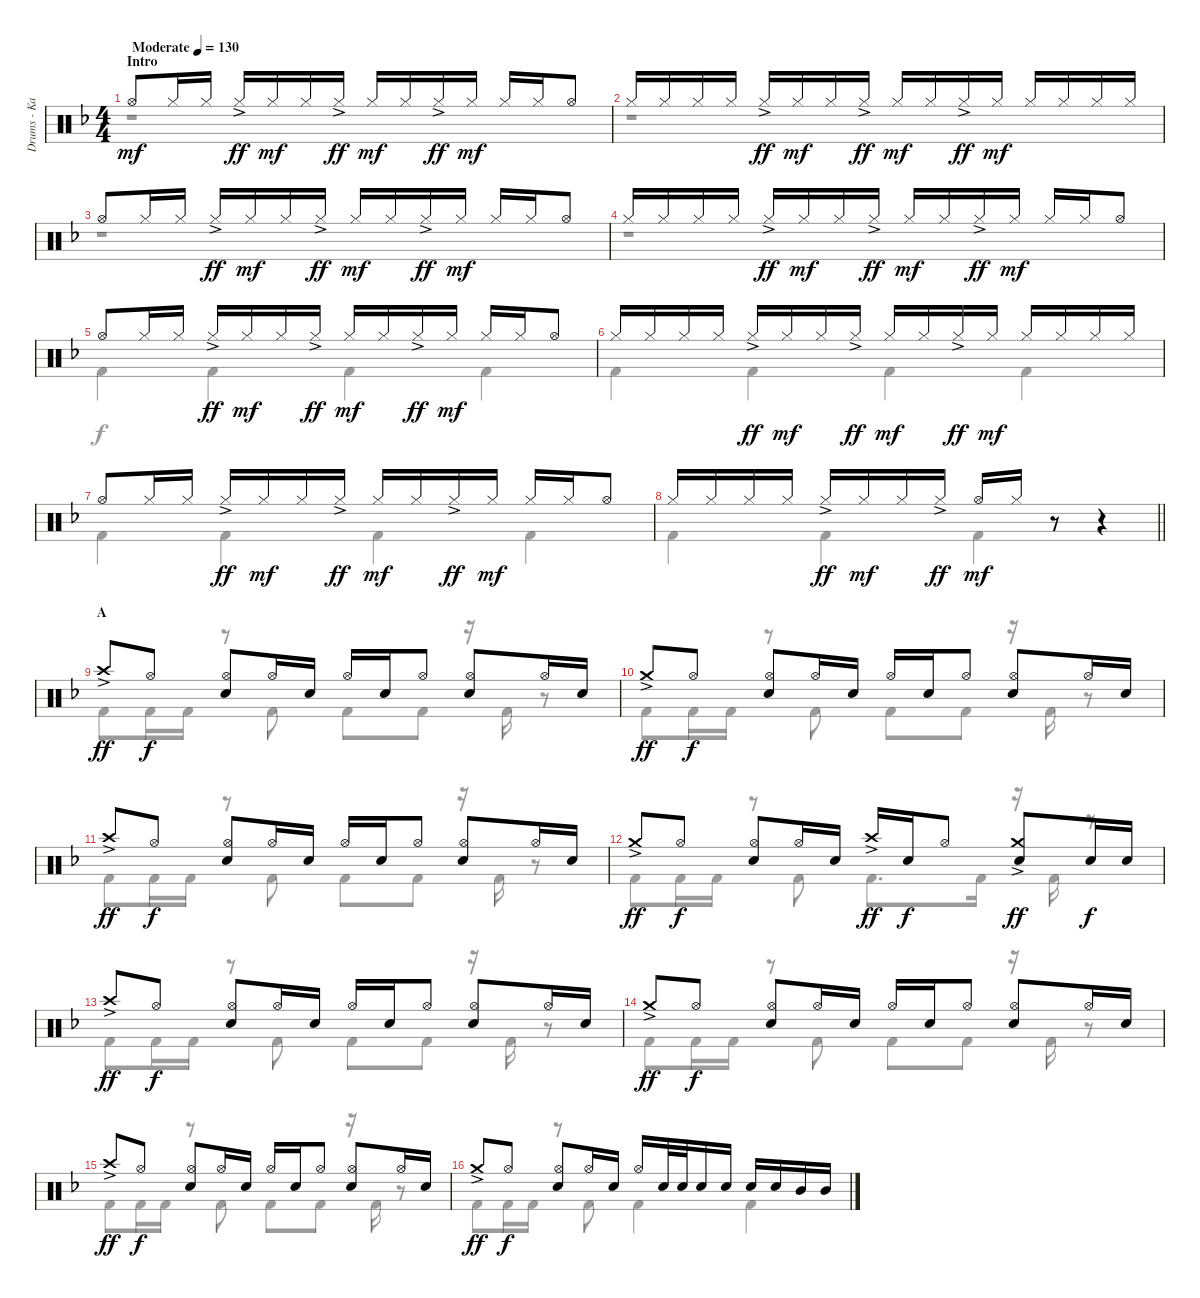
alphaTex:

\track ("Drums - Kai" "Drums - Ka") {instrument percussion}
\staff {score}
\articulation defaults
\voice
\ts (4 4)
\section ("" "Intro")
\tempo (130 "Moderate")
\clef neutral
\ks f "Hi-Hat (open)".8{dy mf} "Hi-Hat (closed)".16 "Hi-Hat (closed)".16 "Hi-Hat (closed)"{ac}.16{dy ff} "Hi-Hat (closed)".16{dy mf} "Hi-Hat (closed)".16 "Hi-Hat (closed)"{ac}.16{dy ff} "Hi-Hat (closed)".16{dy mf} "Hi-Hat (closed)".16 "Hi-Hat (closed)"{ac}.16{dy ff} "Hi-Hat (closed)".16{dy mf} "Hi-Hat (closed)".16 "Hi-Hat (closed)".16 "Hi-Hat (open)".8
|
"Hi-Hat (closed)".16 "Hi-Hat (closed)".16 "Hi-Hat (closed)".16 "Hi-Hat (closed)".16 "Hi-Hat (closed)"{ac}.16{dy ff} "Hi-Hat (closed)".16{dy mf} "Hi-Hat (closed)".16 "Hi-Hat (closed)"{ac}.16{dy ff} "Hi-Hat (closed)".16{dy mf} "Hi-Hat (closed)".16 "Hi-Hat (closed)"{ac}.16{dy ff} "Hi-Hat (closed)".16{dy mf} "Hi-Hat (closed)".16 "Hi-Hat (closed)".16 "Hi-Hat (closed)".16 "Hi-Hat (closed)".16 |
"Hi-Hat (open)".8 "Hi-Hat (closed)".16 "Hi-Hat (closed)".16 "Hi-Hat (closed)"{ac}.16{dy ff} "Hi-Hat (closed)".16{dy mf} "Hi-Hat (closed)".16 "Hi-Hat (closed)"{ac}.16{dy ff} "Hi-Hat (closed)".16{dy mf} "Hi-Hat (closed)".16 "Hi-Hat (closed)"{ac}.16{dy ff} "Hi-Hat (closed)".16{dy mf} "Hi-Hat (closed)".16 "Hi-Hat (closed)".16 "Hi-Hat (open)".8 |
"Hi-Hat (closed)".16 "Hi-Hat (closed)".16 "Hi-Hat (closed)".16 "Hi-Hat (closed)".16 "Hi-Hat (closed)"{ac}.16{dy ff} "Hi-Hat (closed)".16{dy mf} "Hi-Hat (closed)".16 "Hi-Hat (closed)"{ac}.16{dy ff} "Hi-Hat (closed)".16{dy mf} "Hi-Hat (closed)".16 "Hi-Hat (closed)"{ac}.16{dy ff} "Hi-Hat (closed)".16{dy mf} "Hi-Hat (closed)".16 "Hi-Hat (closed)".16 "Hi-Hat (open)".8 |
"Hi-Hat (open)".8 "Hi-Hat (closed)".16 "Hi-Hat (closed)".16 "Hi-Hat (closed)"{ac}.16{dy ff} "Hi-Hat (closed)".16{dy mf} "Hi-Hat (closed)".16 "Hi-Hat (closed)"{ac}.16{dy ff} "Hi-Hat (closed)".16{dy mf} "Hi-Hat (closed)".16 "Hi-Hat (closed)"{ac}.16{dy ff} "Hi-Hat (closed)".16{dy mf} "Hi-Hat (closed)".16 "Hi-Hat (closed)".16 "Hi-Hat (open)".8 |
"Hi-Hat (closed)".16 "Hi-Hat (closed)".16 "Hi-Hat (closed)".16 "Hi-Hat (closed)".16 "Hi-Hat (closed)"{ac}.16{dy ff} "Hi-Hat (closed)".16{dy mf} "Hi-Hat (closed)".16 "Hi-Hat (closed)"{ac}.16{dy ff} "Hi-Hat (closed)".16{dy mf} "Hi-Hat (closed)".16 "Hi-Hat (closed)"{ac}.16{dy ff} "Hi-Hat (closed)".16{dy mf} "Hi-Hat (closed)".16 "Hi-Hat (closed)".16 "Hi-Hat (closed)".16 "Hi-Hat (closed)".16 |
"Hi-Hat (open)".8 "Hi-Hat (closed)".16 "Hi-Hat (closed)".16 "Hi-Hat (closed)"{ac}.16{dy ff} "Hi-Hat (closed)".16{dy mf} "Hi-Hat (closed)".16 "Hi-Hat (closed)"{ac}.16{dy ff} "Hi-Hat (closed)".16{dy mf} "Hi-Hat (closed)".16 "Hi-Hat (closed)"{ac}.16{dy ff} "Hi-Hat (closed)".16{dy mf} "Hi-Hat (closed)".16 "Hi-Hat (closed)".16 "Hi-Hat (open)".8 |
\barLineRight lightlight "Hi-Hat (closed)".16 "Hi-Hat (closed)".16 "Hi-Hat (closed)".16 "Hi-Hat (closed)".16 "Hi-Hat (closed)"{ac}.16{dy ff} "Hi-Hat (closed)".16{dy mf} "Hi-Hat (closed)".16 "Hi-Hat (closed)"{ac}.16{dy ff} "Hi-Hat (open)".16{dy mf} "Hi-Hat (closed)".16
r.8 r.4 |
\section ("" "A")
"Crash high (hit)"{ac}.8{dy ff} "Hi-Hat (open)".8{dy f} ("Hi-Hat (open)" "Snare (hit) 2").8 "Hi-Hat (open)".16 "Snare (hit) 2".16 "Hi-Hat (open)".16 "Snare (hit) 2".16 "Hi-Hat (open)".8 ("Hi-Hat (open)" "Snare (hit) 2").8 "Hi-Hat (open)".16 "Snare (hit) 2".16 |
"Crash medium (hit)"{ac}.8{dy ff} "Hi-Hat (open)".8{dy f} ("Hi-Hat (open)" "Snare (hit) 2").8 "Hi-Hat (open)".16 "Snare (hit) 2".16 "Hi-Hat (open)".16 "Snare (hit) 2".16 "Hi-Hat (open)".8 ("Hi-Hat (open)" "Snare (hit) 2").8 "Hi-Hat (open)".16 "Snare (hit) 2".16 |
"Crash high (hit)"{ac}.8{dy ff} "Hi-Hat (open)".8{dy f} ("Hi-Hat (open)" "Snare (hit) 2").8 "Hi-Hat (open)".16 "Snare (hit) 2".16 "Hi-Hat (open)".16 "Snare (hit) 2".16 "Hi-Hat (open)".8 ("Hi-Hat (open)" "Snare (hit) 2").8 "Hi-Hat (open)".16 "Snare (hit) 2".16 |
"Crash medium (hit)"{ac}.8{dy ff} "Hi-Hat (open)".8{dy f} ("Hi-Hat (open)" "Snare (hit) 2").8 "Hi-Hat (open)".16 "Snare (hit) 2".16 "Crash high (hit)"{ac}.16{dy ff} "Snare (hit) 2".16{dy f} "Hi-Hat (open)".8 ("Crash medium (hit)"{ac} "Snare (hit) 2").8{dy ff} "Snare (hit) 2".16{dy f} "Snare (hit) 2".16 |
"Crash high (hit)"{ac}.8{dy ff} "Hi-Hat (open)".8{dy f} ("Hi-Hat (open)" "Snare (hit) 2").8 "Hi-Hat (open)".16 "Snare (hit) 2".16 "Hi-Hat (open)".16 "Snare (hit) 2".16 "Hi-Hat (open)".8 ("Hi-Hat (open)" "Snare (hit) 2").8 "Hi-Hat (open)".16 "Snare (hit) 2".16 |
"Crash medium (hit)"{ac}.8{dy ff} "Hi-Hat (open)".8{dy f} ("Hi-Hat (open)" "Snare (hit) 2").8 "Hi-Hat (open)".16 "Snare (hit) 2".16 "Hi-Hat (open)".16 "Snare (hit) 2".16 "Hi-Hat (open)".8 ("Hi-Hat (open)" "Snare (hit) 2").8 "Hi-Hat (open)".16 "Snare (hit) 2".16 |
"Crash high (hit)"{ac}.8{dy ff} "Hi-Hat (open)".8{dy f} ("Hi-Hat (open)" "Snare (hit) 2").8 "Hi-Hat (open)".16 "Snare (hit) 2".16 "Hi-Hat (open)".16 "Snare (hit) 2".16 "Hi-Hat (open)".8 ("Hi-Hat (open)" "Snare (hit) 2").8 "Hi-Hat (open)".16 "Snare (hit) 2".16 |
"Crash medium (hit)"{ac}.8{dy ff} "Hi-Hat (open)".8{dy f} ("Hi-Hat (open)" "Snare (hit) 2").8 "Hi-Hat (open)".16 "Snare (hit) 2".16 "Hi-Hat (open)".16 "Snare (hit) 2".32 "Snare (hit) 2".32 "Snare (hit) 2".16 "Snare (hit) 2".16 "Snare (hit) 2".16 "Snare (hit) 2".16 "Mid Tom (hit)".16 "Mid Tom (hit)".16
\voice
\clef neutral
\ottava regular
\simile none
\ks f
r.1{dy f} |
r.1 |
r.1 |
r.1 |
"Kick (hit) 2".4 "Kick (hit) 2".4 "Kick (hit) 2".4 "Kick (hit) 2".4 |
"Kick (hit) 2".4 "Kick (hit) 2".4 "Kick (hit) 2".4 "Kick (hit) 2".4 |
"Kick (hit) 2".4 "Kick (hit) 2".4 "Kick (hit) 2".4 "Kick (hit) 2".4 |
\barLineRight lightlight "Kick (hit) 2".4 "Kick (hit) 2".4 "Kick (hit) 2".4
r.4 |
"Kick (hit) 2".8 "Kick (hit) 2".16 "Kick (hit) 2".16 r.8 "Kick (hit) 2".8 "Kick (hit) 2".8 "Kick (hit) 2".8 r.16 "Kick (hit) 2".16 r.8 |
"Kick (hit) 2".8 "Kick (hit) 2".16 "Kick (hit) 2".16 r.8 "Kick (hit) 2".8 "Kick (hit) 2".8 "Kick (hit) 2".8 r.16 "Kick (hit) 2".16 r.8 |
"Kick (hit) 2".8 "Kick (hit) 2".16 "Kick (hit) 2".16 r.8 "Kick (hit) 2".8 "Kick (hit) 2".8 "Kick (hit) 2".8 r.16 "Kick (hit) 2".16 r.8 |
"Kick (hit) 2".8 "Kick (hit) 2".16 "Kick (hit) 2".16 r.8 "Kick (hit) 2".8 "Kick (hit) 2".8{d} "Kick (hit) 2".16 r.16 "Kick (hit) 2".16 r.8 |
"Kick (hit) 2".8 "Kick (hit) 2".16 "Kick (hit) 2".16 r.8 "Kick (hit) 2".8 "Kick (hit) 2".8 "Kick (hit) 2".8 r.16 "Kick (hit) 2".16 r.8 |
"Kick (hit) 2".8 "Kick (hit) 2".16 "Kick (hit) 2".16 r.8 "Kick (hit) 2".8 "Kick (hit) 2".8 "Kick (hit) 2".8 r.16 "Kick (hit) 2".16 r.8 |
"Kick (hit) 2".8 "Kick (hit) 2".16 "Kick (hit) 2".16 r.8 "Kick (hit) 2".8 "Kick (hit) 2".8 "Kick (hit) 2".8 r.16 "Kick (hit) 2".16 r.8 |
"Kick (hit) 2".8 "Kick (hit) 2".16 "Kick (hit) 2".16 r.8 "Kick (hit) 2".8 "Kick (hit) 2".4 "Kick (hit) 2".4
